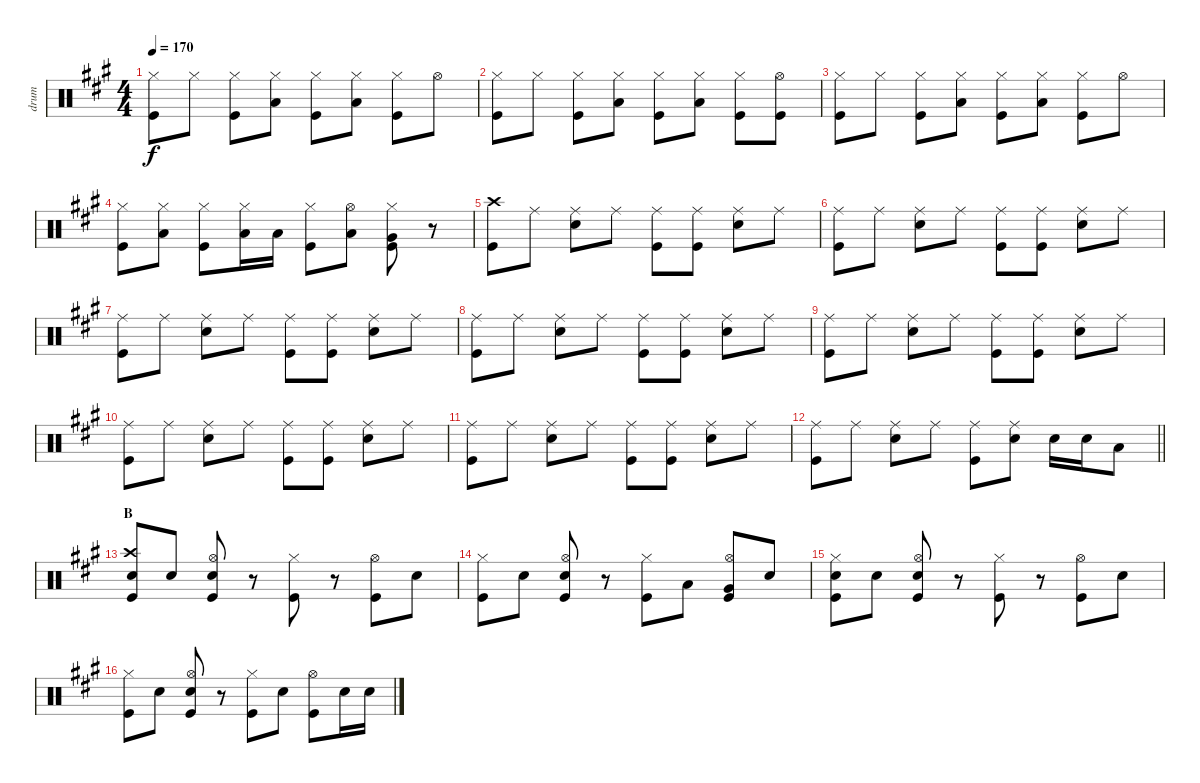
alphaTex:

\track ("drum" "drum") {instrument percussion}
\staff {score}
\articulation defaults
\ts (4 4)
\tempo 170
\clef neutral
\ks a
("Hi-Hat (closed)" "Kick (hit)").8{dy f} "Hi-Hat (closed)".8 ("Hi-Hat (closed)" "Kick (hit)").8 ("Hi-Hat (closed)" "Low Tom (hit)").8 ("Hi-Hat (closed)" "Kick (hit)").8 ("Hi-Hat (closed)" "Low Tom (hit)").8 ("Hi-Hat (closed)" "Kick (hit)").8 "Hi-Hat (open)".8 |
("Hi-Hat (closed)" "Kick (hit)").8 "Hi-Hat (closed)".8 ("Hi-Hat (closed)" "Kick (hit)").8 ("Hi-Hat (closed)" "Low Tom (hit)").8 ("Hi-Hat (closed)" "Kick (hit)").8 ("Hi-Hat (closed)" "Low Tom (hit)").8 ("Hi-Hat (closed)" "Kick (hit)").8 ("Hi-Hat (open)" "Kick (hit)").8 |
("Hi-Hat (closed)" "Kick (hit)").8 "Hi-Hat (closed)".8 ("Hi-Hat (closed)" "Kick (hit)").8 ("Hi-Hat (closed)" "Low Tom (hit)").8 ("Hi-Hat (closed)" "Kick (hit)").8 ("Hi-Hat (closed)" "Low Tom (hit)").8 ("Hi-Hat (closed)" "Kick (hit)").8 "Hi-Hat (open)".8 |
("Hi-Hat (closed)" "Kick (hit)").8 ("Hi-Hat (closed)" "Low Tom (hit)").8 ("Hi-Hat (closed)" "Kick (hit)").8 ("Hi-Hat (closed)" "Low Tom (hit)").16 "Low Tom (hit)".16 ("Hi-Hat (closed)" "Kick (hit)").8 ("Hi-Hat (open)" "Low Tom (hit)").8 ("Hi-Hat (closed)" "Very Low Tom (hit)" "Kick (hit)").8 r.8 |
("Crash high (hit)" "Kick (hit)").8 "Ride (middle)".8 ("Ride (middle)" "Snare (hit) 2").8 "Ride (middle)".8 ("Ride (middle)" "Kick (hit)").8 ("Ride (middle)" "Kick (hit)").8 ("Ride (middle)" "Snare (hit) 2").8 "Ride (middle)".8 |
("Ride (middle)" "Kick (hit)").8 "Ride (middle)".8 ("Ride (middle)" "Snare (hit) 2").8 "Ride (middle)".8 ("Ride (middle)" "Kick (hit)").8 ("Ride (middle)" "Kick (hit)").8 ("Ride (middle)" "Snare (hit) 2").8 "Ride (middle)".8 |
("Ride (middle)" "Kick (hit)").8 "Ride (middle)".8 ("Ride (middle)" "Snare (hit) 2").8 "Ride (middle)".8 ("Ride (middle)" "Kick (hit)").8 ("Ride (middle)" "Kick (hit)").8 ("Ride (middle)" "Snare (hit) 2").8 "Ride (middle)".8 |
("Ride (middle)" "Kick (hit)").8 "Ride (middle)".8 ("Ride (middle)" "Snare (hit) 2").8 "Ride (middle)".8 ("Ride (middle)" "Kick (hit)").8 ("Ride (middle)" "Kick (hit)").8 ("Ride (middle)" "Snare (hit) 2").8 "Ride (middle)".8 |
("Ride (middle)" "Kick (hit)").8 "Ride (middle)".8 ("Ride (middle)" "Snare (hit) 2").8 "Ride (middle)".8 ("Ride (middle)" "Kick (hit)").8 ("Ride (middle)" "Kick (hit)").8 ("Ride (middle)" "Snare (hit) 2").8 "Ride (middle)".8 |
("Ride (middle)" "Kick (hit)").8 "Ride (middle)".8 ("Ride (middle)" "Snare (hit) 2").8 "Ride (middle)".8 ("Ride (middle)" "Kick (hit)").8 ("Ride (middle)" "Kick (hit)").8 ("Ride (middle)" "Snare (hit) 2").8 "Ride (middle)".8 |
("Ride (middle)" "Kick (hit)").8 "Ride (middle)".8 ("Ride (middle)" "Snare (hit) 2").8 "Ride (middle)".8 ("Ride (middle)" "Kick (hit)").8 ("Ride (middle)" "Kick (hit)").8 ("Ride (middle)" "Snare (hit) 2").8 "Ride (middle)".8 |
\barLineRight lightlight
("Ride (middle)" "Kick (hit)").8 "Ride (middle)".8 ("Ride (middle)" "Snare (hit) 2").8 "Ride (middle)".8 ("Ride (middle)" "Kick (hit)").8 ("Ride (middle)" "Snare (hit) 2").8 "Snare (hit) 2".16 "Snare (hit) 2".16 "Low Tom (hit)".8 |
\section ("" "B")
("Crash high (hit)" "Snare (hit) 2" "Kick (hit)").8 "Snare (hit) 2".8 ("Hi-Hat (open)" "Snare (hit) 2" "Kick (hit)").8 r.8 ("Hi-Hat (closed)" "Kick (hit)").8 r.8 ("Hi-Hat (open)" "Kick (hit)").8 "Snare (hit) 2".8 |
("Hi-Hat (closed)" "Kick (hit)").8 "Snare (hit) 2".8 ("Hi-Hat (open)" "Snare (hit) 2" "Kick (hit)").8 r.8 ("Hi-Hat (closed)" "Kick (hit)").8 "Low Tom (hit)".8 ("Hi-Hat (open)" "Very Low Tom (hit)" "Kick (hit)").8 "Snare (hit) 2".8 |
("Hi-Hat (closed)" "Snare (hit) 2" "Kick (hit)").8 "Snare (hit) 2".8 ("Hi-Hat (open)" "Snare (hit) 2" "Kick (hit)").8 r.8 ("Hi-Hat (closed)" "Kick (hit)").8 r.8 ("Hi-Hat (open)" "Kick (hit)").8 "Snare (hit) 2".8 |
("Hi-Hat (closed)" "Kick (hit)").8 "Snare (hit) 2".8 ("Hi-Hat (open)" "Snare (hit) 2" "Kick (hit)").8 r.8 ("Hi-Hat (closed)" "Kick (hit)").8 "Snare (hit) 2".8 ("Hi-Hat (open)" "Kick (hit)").8 "Snare (hit) 2".16 "Snare (hit) 2".16
